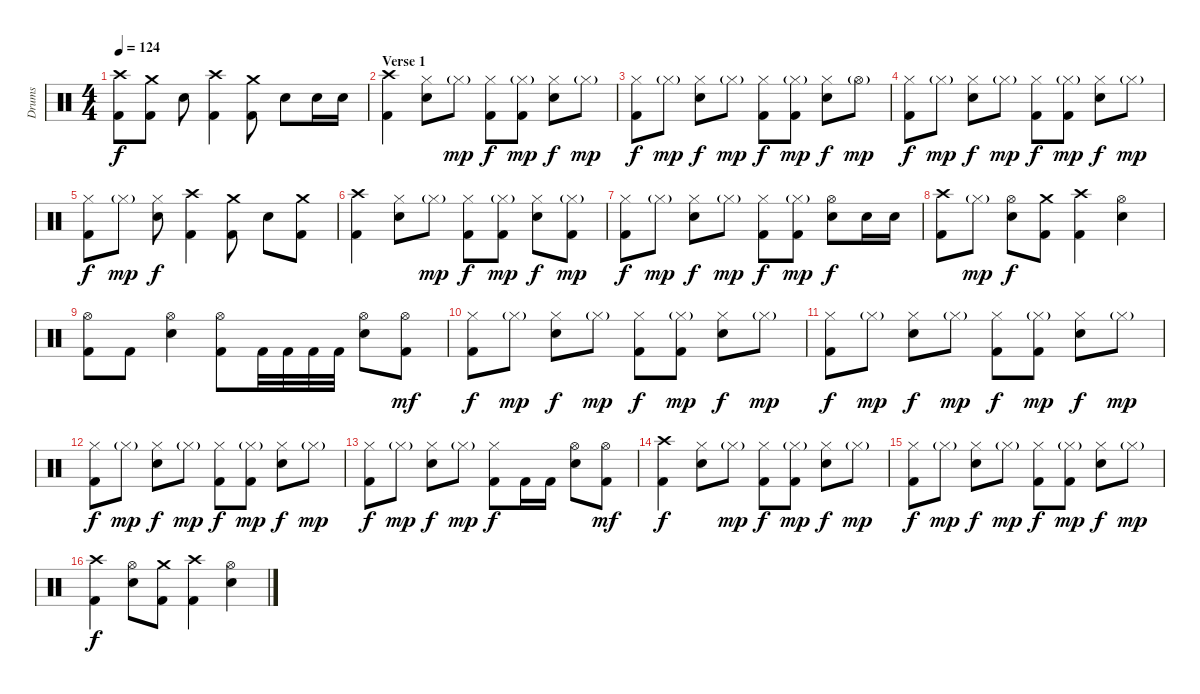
\track ("Drums" "Drums") {instrument percussion}
\staff {score}
\articulation defaults
\ts (4 4)
\tempo 124
\clef neutral
\ks c
("Crash high (hit)" "Kick (hit) 2").8{dy f} ("Crash medium (hit)" "Kick (hit) 2").8 "Snare (hit) 2".8 ("Crash high (hit)" "Kick (hit) 2").4 ("Crash medium (hit)" "Kick (hit) 2").8 "Snare (hit) 2".8 "Snare (hit) 2".16 "Snare (hit) 2".16 |
\section ("" "Verse 1")
("Crash high (hit)" "Kick (hit) 2").4 ("Hi-Hat (closed)" "Snare (hit) 2").8 "Hi-Hat (closed)"{g}.8{dy mp} ("Hi-Hat (closed)" "Kick (hit) 2").8{dy f} ("Hi-Hat (closed)"{g} "Kick (hit) 2").8{dy mp} ("Hi-Hat (closed)" "Snare (hit) 2").8{dy f} "Hi-Hat (closed)"{g}.8{dy mp} |
("Hi-Hat (closed)" "Kick (hit) 2").8{dy f} "Hi-Hat (closed)"{g}.8{dy mp} ("Hi-Hat (closed)" "Snare (hit) 2").8{dy f} "Hi-Hat (closed)"{g}.8{dy mp} ("Hi-Hat (closed)" "Kick (hit) 2").8{dy f} ("Hi-Hat (closed)"{g} "Kick (hit) 2").8{dy mp} ("Hi-Hat (closed)" "Snare (hit) 2").8{dy f} "Hi-Hat (open)"{g}.8{dy mp} |
("Hi-Hat (closed)" "Kick (hit) 2").8{dy f} "Hi-Hat (closed)"{g}.8{dy mp} ("Hi-Hat (closed)" "Snare (hit) 2").8{dy f} "Hi-Hat (closed)"{g}.8{dy mp} ("Hi-Hat (closed)" "Kick (hit) 2").8{dy f} ("Hi-Hat (closed)"{g} "Kick (hit) 2").8{dy mp} ("Hi-Hat (closed)" "Snare (hit) 2").8{dy f} "Hi-Hat (closed)"{g}.8{dy mp} |
("Hi-Hat (closed)" "Kick (hit) 2").8{dy f} "Hi-Hat (closed)"{g}.8{dy mp} ("Hi-Hat (closed)" "Snare (hit) 2").8{dy f} ("Crash high (hit)" "Kick (hit) 2").4 ("Crash medium (hit)" "Kick (hit) 2").8 "Snare (hit) 2".8 ("Crash medium (hit)" "Kick (hit) 2").8 |
("Crash high (hit)" "Kick (hit) 2").4 ("Hi-Hat (closed)" "Snare (hit) 2").8 "Hi-Hat (closed)"{g}.8{dy mp} ("Hi-Hat (closed)" "Kick (hit) 2").8{dy f} ("Hi-Hat (closed)"{g} "Kick (hit) 2").8{dy mp} ("Hi-Hat (closed)" "Snare (hit) 2").8{dy f} ("Hi-Hat (closed)"{g} "Kick (hit) 2").8{dy mp} |
("Hi-Hat (closed)" "Kick (hit) 2").8{dy f} "Hi-Hat (closed)"{g}.8{dy mp} ("Hi-Hat (closed)" "Snare (hit) 2").8{dy f} "Hi-Hat (closed)"{g}.8{dy mp} ("Hi-Hat (closed)" "Kick (hit) 2").8{dy f} ("Hi-Hat (closed)"{g} "Kick (hit) 2").8{dy mp} ("Hi-Hat (open)" "Snare (hit) 2").8{dy f} "Snare (hit) 2".16 "Snare (hit) 2".16 |
("Crash high (hit)" "Kick (hit) 2").8 "Hi-Hat (closed)"{g}.8{dy mp} ("Hi-Hat (open)" "Snare (hit) 2").8{dy f} ("Crash medium (hit)" "Kick (hit) 2").8 ("Crash high (hit)" "Kick (hit) 2").4 ("Hi-Hat (open)" "Snare (hit) 2").4 |
("Hi-Hat (open)" "Kick (hit) 2").8 "Kick (hit) 2".8 ("Hi-Hat (open)" "Snare (hit) 2").4 ("Hi-Hat (open)" "Kick (hit) 2").8 "Kick (hit) 2".32 "Kick (hit) 2".32 "Kick (hit) 2".32 "Kick (hit) 2".32 ("Hi-Hat (open)" "Snare (hit) 2").8 ("Hi-Hat (open)" "Kick (hit) 2").8{dy mf} |
("Hi-Hat (closed)" "Kick (hit) 2").8{dy f} "Hi-Hat (closed)"{g}.8{dy mp} ("Hi-Hat (closed)" "Snare (hit) 2").8{dy f} "Hi-Hat (closed)"{g}.8{dy mp} ("Hi-Hat (closed)" "Kick (hit) 2").8{dy f} ("Hi-Hat (closed)"{g} "Kick (hit) 2").8{dy mp} ("Hi-Hat (closed)" "Snare (hit) 2").8{dy f} "Hi-Hat (closed)"{g}.8{dy mp} |
("Hi-Hat (closed)" "Kick (hit) 2").8{dy f} "Hi-Hat (closed)"{g}.8{dy mp} ("Hi-Hat (closed)" "Snare (hit) 2").8{dy f} "Hi-Hat (closed)"{g}.8{dy mp} ("Hi-Hat (closed)" "Kick (hit) 2").8{dy f} ("Hi-Hat (closed)"{g} "Kick (hit) 2").8{dy mp} ("Hi-Hat (closed)" "Snare (hit) 2").8{dy f} "Hi-Hat (closed)"{g}.8{dy mp} |
("Hi-Hat (closed)" "Kick (hit) 2").8{dy f} "Hi-Hat (closed)"{g}.8{dy mp} ("Hi-Hat (closed)" "Snare (hit) 2").8{dy f} "Hi-Hat (closed)"{g}.8{dy mp} ("Hi-Hat (closed)" "Kick (hit) 2").8{dy f} ("Hi-Hat (closed)"{g} "Kick (hit) 2").8{dy mp} ("Hi-Hat (closed)" "Snare (hit) 2").8{dy f} "Hi-Hat (closed)"{g}.8{dy mp} |
("Hi-Hat (closed)" "Kick (hit) 2").8{dy f} "Hi-Hat (closed)"{g}.8{dy mp} ("Hi-Hat (closed)" "Snare (hit) 2").8{dy f} "Hi-Hat (closed)"{g}.8{dy mp} ("Hi-Hat (closed)" "Kick (hit) 2").8{dy f} "Kick (hit) 2".16 "Kick (hit) 2".16 ("Hi-Hat (open)" "Snare (hit) 2").8 ("Hi-Hat (open)" "Kick (hit) 2").8{dy mf} |
("Crash high (hit)" "Kick (hit) 2").4{dy f} ("Hi-Hat (closed)" "Snare (hit) 2").8 "Hi-Hat (closed)"{g}.8{dy mp} ("Hi-Hat (closed)" "Kick (hit) 2").8{dy f} ("Hi-Hat (closed)"{g} "Kick (hit) 2").8{dy mp} ("Hi-Hat (closed)" "Snare (hit) 2").8{dy f} "Hi-Hat (closed)"{g}.8{dy mp} |
("Hi-Hat (closed)" "Kick (hit) 2").8{dy f} "Hi-Hat (closed)"{g}.8{dy mp} ("Hi-Hat (closed)" "Snare (hit) 2").8{dy f} "Hi-Hat (closed)"{g}.8{dy mp} ("Hi-Hat (closed)" "Kick (hit) 2").8{dy f} ("Hi-Hat (closed)"{g} "Kick (hit) 2").8{dy mp} ("Hi-Hat (closed)" "Snare (hit) 2").8{dy f} "Hi-Hat (closed)"{g}.8{dy mp} |
("Crash high (hit)" "Kick (hit) 2").4{dy f} ("Hi-Hat (open)" "Snare (hit) 2").8 ("Crash medium (hit)" "Kick (hit) 2").8 ("Crash high (hit)" "Kick (hit) 2").4 ("Hi-Hat (open)" "Snare (hit) 2").4
